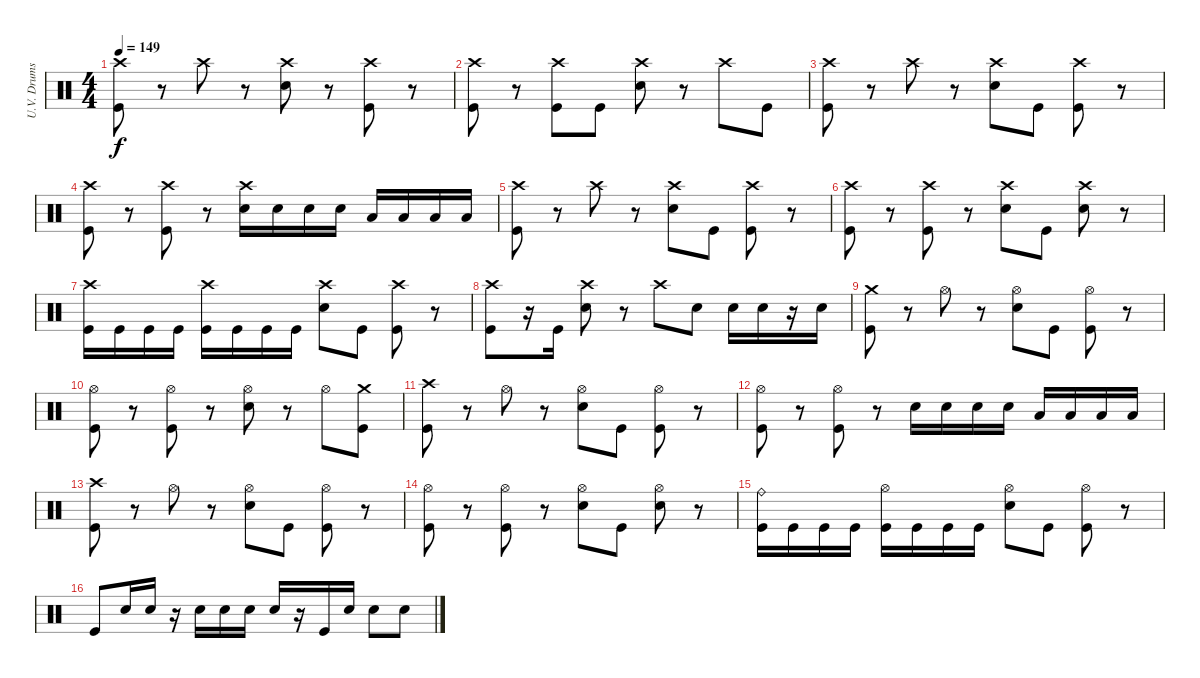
\track ("U.V. Drums" "U.V. Drums") {instrument percussion}
\staff {score}
\articulation defaults
\ts (4 4)
\tempo 149
\clef neutral
\ks c
("Crash high (hit)" "Kick (hit)").8{dy f} r.8 "Crash high (hit)".8 r.8 ("Crash high (hit)" "Electric Snare (hit)").8 r.8 ("Crash high (hit)" "Kick (hit)").8 r.8 |
("Crash high (hit)" "Kick (hit)").8 r.8 ("Crash high (hit)" "Kick (hit)").8 "Kick (hit)".8 ("Crash high (hit)" "Electric Snare (hit)").8 r.8 "Crash high (hit)".8 "Kick (hit)".8 |
("Crash high (hit)" "Kick (hit)").8 r.8 "Crash high (hit)".8 r.8 ("Crash high (hit)" "Electric Snare (hit)").8 "Kick (hit)".8 ("Crash high (hit)" "Kick (hit)").8 r.8 |
("Crash high (hit)" "Kick (hit)").8 r.8 ("Crash high (hit)" "Kick (hit)").8 r.8 ("Crash high (hit)" "Electric Snare (hit)").16 "Electric Snare (hit)".16 "Electric Snare (hit)".16 "Electric Snare (hit)".16 "Low Tom (hit)".16 "Low Tom (hit)".16 "Low Tom (hit)".16 "Low Tom (hit)".16 |
("Crash high (hit)" "Kick (hit)").8 r.8 "Crash high (hit)".8 r.8 ("Crash high (hit)" "Electric Snare (hit)").8 "Kick (hit)".8 ("Crash high (hit)" "Kick (hit)").8 r.8 |
("Crash high (hit)" "Kick (hit)").8 r.8 ("Crash high (hit)" "Kick (hit)").8 r.8 ("Crash high (hit)" "Electric Snare (hit)").8 "Kick (hit)".8 ("Crash high (hit)" "Electric Snare (hit)").8 r.8 |
("Crash high (hit)" "Kick (hit)").16 "Kick (hit)".16 "Kick (hit)".16 "Kick (hit)".16 ("Crash high (hit)" "Kick (hit)").16 "Kick (hit)".16 "Kick (hit)".16 "Kick (hit)".16 ("Crash high (hit)" "Electric Snare (hit)").8 "Kick (hit)".8 ("Crash high (hit)" "Kick (hit)").8 r.8 |
("Crash high (hit)" "Kick (hit)").8 r.16 "Kick (hit)".16 ("Crash high (hit)" "Electric Snare (hit)").8 r.8 "Crash high (hit)".8 "Electric Snare (hit)".8 "Electric Snare (hit)".16 "Electric Snare (hit)".16 r.16 "Electric Snare (hit)".16 |
("Crash medium (hit)" "Kick (hit)").8 r.8 "Hi-Hat (open)".8 r.8 ("Hi-Hat (open)" "Electric Snare (hit)").8 "Kick (hit)".8 ("Hi-Hat (open)" "Kick (hit)").8 r.8 |
("Hi-Hat (open)" "Kick (hit)").8 r.8 ("Hi-Hat (open)" "Kick (hit)").8 r.8 ("Hi-Hat (open)" "Electric Snare (hit)").8 r.8 "Hi-Hat (open)".8 ("Crash medium (hit)" "Kick (hit)").8 |
("Crash high (hit)" "Kick (hit)").8 r.8 "Hi-Hat (open)".8 r.8 ("Hi-Hat (open)" "Electric Snare (hit)").8 "Kick (hit)".8 ("Hi-Hat (open)" "Kick (hit)").8 r.8 |
("Hi-Hat (open)" "Kick (hit)").8 r.8 ("Hi-Hat (open)" "Kick (hit)").8 r.8 "Electric Snare (hit)".16 "Electric Snare (hit)".16 "Electric Snare (hit)".16 "Electric Snare (hit)".16 "Low Tom (hit)".16 "Low Tom (hit)".16 "Low Tom (hit)".16 "Low Tom (hit)".16 |
("Crash high (hit)" "Kick (hit)").8 r.8 "Hi-Hat (open)".8 r.8 ("Hi-Hat (open)" "Electric Snare (hit)").8 "Kick (hit)".8 ("Hi-Hat (open)" "Kick (hit)").8 r.8 |
("Hi-Hat (open)" "Kick (hit)").8 r.8 ("Hi-Hat (open)" "Kick (hit)").8 r.8 ("Hi-Hat (open)" "Electric Snare (hit)").8 "Kick (hit)".8 ("Hi-Hat (open)" "Electric Snare (hit)").8 r.8 |
("Ride (bell)" "Kick (hit)").16 "Kick (hit)".16 "Kick (hit)".16 "Kick (hit)".16 ("Hi-Hat (open)" "Kick (hit)").16 "Kick (hit)".16 "Kick (hit)".16 "Kick (hit)".16 ("Hi-Hat (open)" "Electric Snare (hit)").8 "Kick (hit)".8 ("Hi-Hat (open)" "Kick (hit)").8 r.8 |
"Kick (hit)".8 "Electric Snare (hit)".16 "Electric Snare (hit)".16 r.16 "Electric Snare (hit)".16 "Electric Snare (hit)".16 "Electric Snare (hit)".16 "Electric Snare (hit)".16 r.16 "Kick (hit)".16 "Electric Snare (hit)".16 "Electric Snare (hit)".8 "Electric Snare (hit)".8
